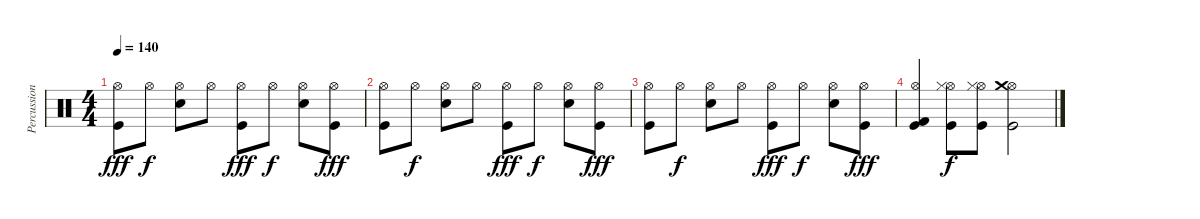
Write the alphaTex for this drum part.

\track ("Percussion" "Percussion") {instrument percussion}
\staff {score}
\articulation defaults
\ts (4 4)
\tempo 140
\clef neutral
\ks c
("Kick (hit)" "Hi-Hat (open)").8{dy fff} "Hi-Hat (open)".8{dy f} ("Metronome (bell)" "Hi-Hat (open)").8 "Hi-Hat (open)".8 ("Kick (hit)" "Hi-Hat (open)").8{dy fff} "Hi-Hat (open)".8{dy f} ("Metronome (bell)" "Hi-Hat (open)").8 ("Kick (hit)" "Hi-Hat (open)").8{dy fff} |
("Kick (hit)" "Hi-Hat (open)").8 "Hi-Hat (open)".8{dy f} ("Metronome (bell)" "Hi-Hat (open)").8 "Hi-Hat (open)".8 ("Kick (hit)" "Hi-Hat (open)").8{dy fff} "Hi-Hat (open)".8{dy f} ("Metronome (bell)" "Hi-Hat (open)").8 ("Kick (hit)" "Hi-Hat (open)").8{dy fff} |
("Kick (hit)" "Hi-Hat (open)").8 "Hi-Hat (open)".8{dy f} ("Metronome (bell)" "Hi-Hat (open)").8 "Hi-Hat (open)".8 ("Kick (hit)" "Hi-Hat (open)").8{dy fff} "Hi-Hat (open)".8{dy f} ("Metronome (bell)" "Hi-Hat (open)").8 ("Kick (hit)" "Hi-Hat (open)").8{dy fff} |
("Kick (hit)" "Hi-Hat (open)" "Kick (hit) 2").4 ("Kick (hit)" "Hi-Hat (open)" "Hi-Hat (closed)").8{dy f} ("Kick (hit)" "Hi-Hat (open)" "Hi-Hat (closed)").8 ("Kick (hit)" "Hi-Hat (open)" "Crash medium (hit)").2
